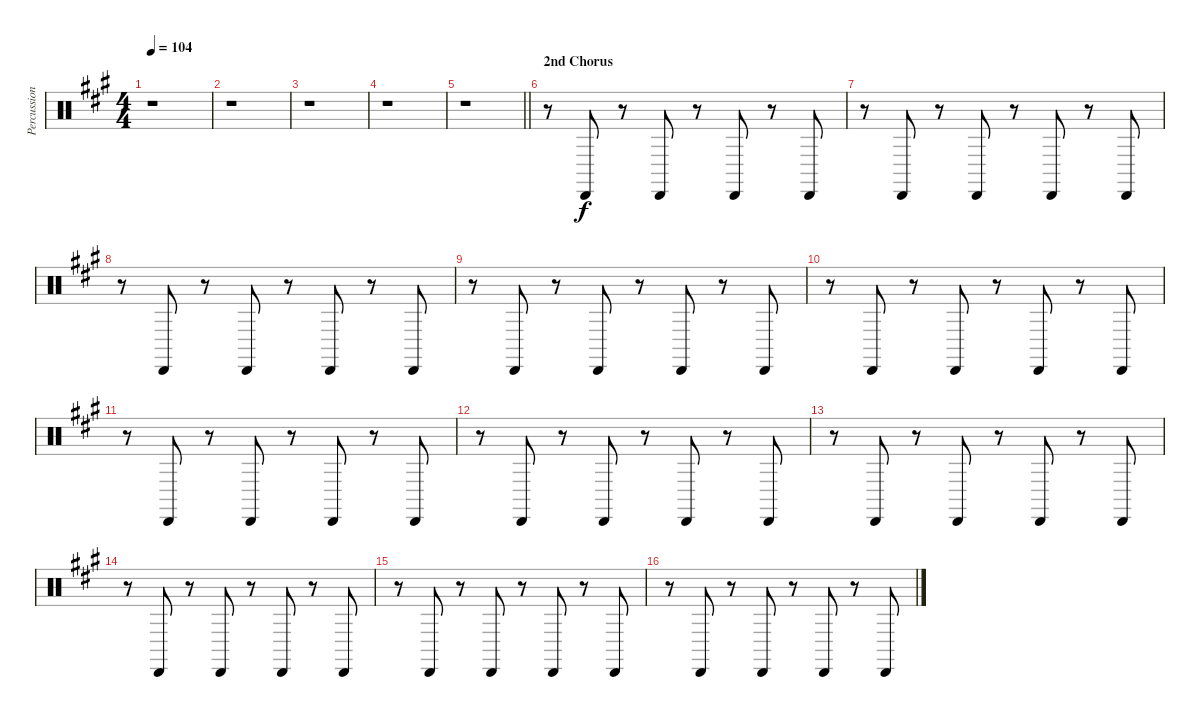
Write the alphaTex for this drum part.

\track ("Percussion" "Percussion") {instrument percussion}
\staff {score}
\articulation defaults
\ts (4 4)
\tempo 104
\clef neutral
\ks a
r.1{dy f} |
r.1 |
r.1 |
r.1 |
\barLineRight lightlight
r.1 |
\section ("" "2nd Chorus")
r.8 "Cabasa (hit)".8 r.8 "Cabasa (hit)".8 r.8 "Cabasa (hit)".8 r.8 "Cabasa (hit)".8 |
r.8 "Cabasa (hit)".8 r.8 "Cabasa (hit)".8 r.8 "Cabasa (hit)".8 r.8 "Cabasa (hit)".8 |
r.8 "Cabasa (hit)".8 r.8 "Cabasa (hit)".8 r.8 "Cabasa (hit)".8 r.8 "Cabasa (hit)".8 |
r.8 "Cabasa (hit)".8 r.8 "Cabasa (hit)".8 r.8 "Cabasa (hit)".8 r.8 "Cabasa (hit)".8 |
r.8 "Cabasa (hit)".8 r.8 "Cabasa (hit)".8 r.8 "Cabasa (hit)".8 r.8 "Cabasa (hit)".8 |
r.8 "Cabasa (hit)".8 r.8 "Cabasa (hit)".8 r.8 "Cabasa (hit)".8 r.8 "Cabasa (hit)".8 |
r.8 "Cabasa (hit)".8 r.8 "Cabasa (hit)".8 r.8 "Cabasa (hit)".8 r.8 "Cabasa (hit)".8 |
r.8 "Cabasa (hit)".8 r.8 "Cabasa (hit)".8 r.8 "Cabasa (hit)".8 r.8 "Cabasa (hit)".8 |
r.8 "Cabasa (hit)".8 r.8 "Cabasa (hit)".8 r.8 "Cabasa (hit)".8 r.8 "Cabasa (hit)".8 |
r.8 "Cabasa (hit)".8 r.8 "Cabasa (hit)".8 r.8 "Cabasa (hit)".8 r.8 "Cabasa (hit)".8 |
r.8 "Cabasa (hit)".8 r.8 "Cabasa (hit)".8 r.8 "Cabasa (hit)".8 r.8 "Cabasa (hit)".8
